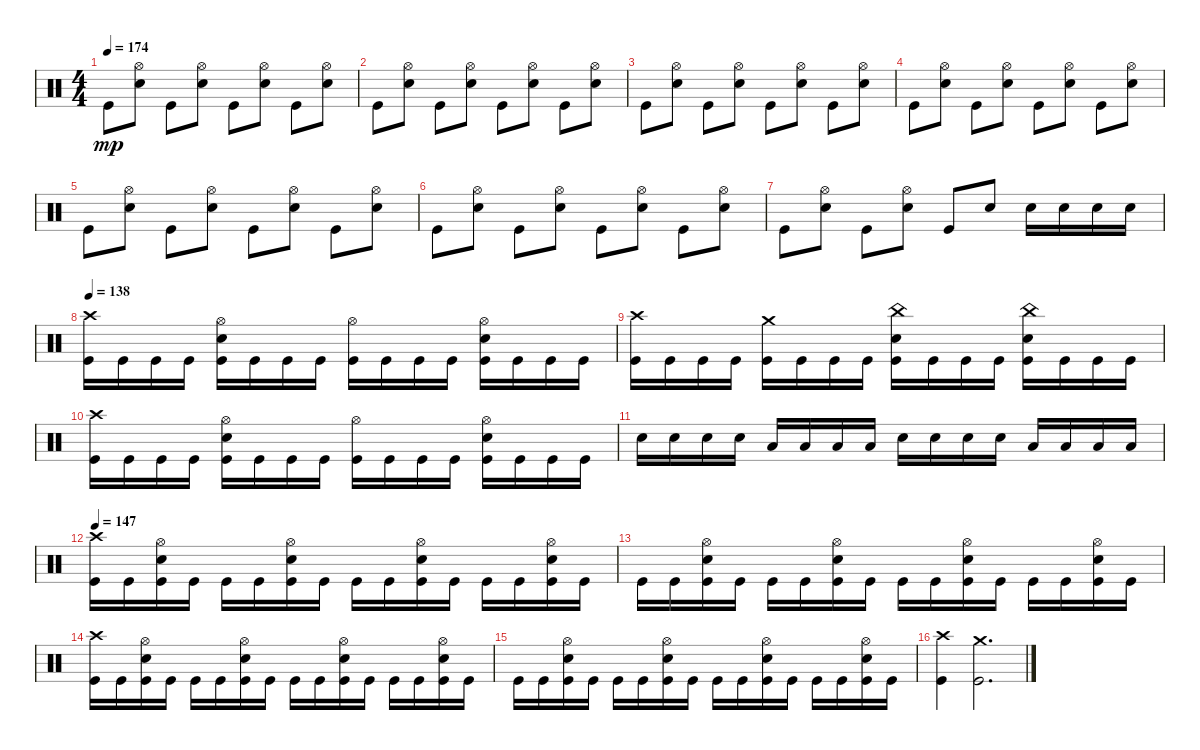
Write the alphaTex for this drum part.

\track "" {instrument percussion}
\staff {score}
\articulation defaults
\ts (4 4)
\tempo 174
\clef neutral
\ks c "Kick (hit)".8{dy mp}
("Snare (hit) 2" "Hi-Hat (open)").8 "Kick (hit)".8 ("Snare (hit) 2" "Hi-Hat (open)").8 "Kick (hit)".8 ("Snare (hit) 2" "Hi-Hat (open)").8 "Kick (hit)".8 ("Snare (hit) 2" "Hi-Hat (open)").8 |
"Kick (hit)".8 ("Snare (hit) 2" "Hi-Hat (open)").8 "Kick (hit)".8 ("Snare (hit) 2" "Hi-Hat (open)").8 "Kick (hit)".8 ("Snare (hit) 2" "Hi-Hat (open)").8 "Kick (hit)".8 ("Snare (hit) 2" "Hi-Hat (open)").8 |
"Kick (hit)".8 ("Snare (hit) 2" "Hi-Hat (open)").8 "Kick (hit)".8 ("Snare (hit) 2" "Hi-Hat (open)").8 "Kick (hit)".8 ("Snare (hit) 2" "Hi-Hat (open)").8 "Kick (hit)".8 ("Snare (hit) 2" "Hi-Hat (open)").8 |
"Kick (hit)".8 ("Snare (hit) 2" "Hi-Hat (open)").8 "Kick (hit)".8 ("Snare (hit) 2" "Hi-Hat (open)").8 "Kick (hit)".8 ("Snare (hit) 2" "Hi-Hat (open)").8 "Kick (hit)".8 ("Snare (hit) 2" "Hi-Hat (open)").8 |
"Kick (hit)".8 ("Snare (hit) 2" "Hi-Hat (open)").8 "Kick (hit)".8 ("Snare (hit) 2" "Hi-Hat (open)").8 "Kick (hit)".8 ("Snare (hit) 2" "Hi-Hat (open)").8 "Kick (hit)".8 ("Snare (hit) 2" "Hi-Hat (open)").8 |
"Kick (hit)".8 ("Snare (hit) 2" "Hi-Hat (open)").8 "Kick (hit)".8 ("Snare (hit) 2" "Hi-Hat (open)").8 "Kick (hit)".8 ("Snare (hit) 2" "Hi-Hat (open)").8 "Kick (hit)".8 ("Snare (hit) 2" "Hi-Hat (open)").8 |
"Kick (hit)".8 ("Snare (hit) 2" "Hi-Hat (open)").8 "Kick (hit)".8 ("Snare (hit) 2" "Hi-Hat (open)").8 "Kick (hit)".8 "Snare (hit) 2".8 "Snare (hit) 2".16 "Snare (hit) 2".16 "Snare (hit) 2".16 "Snare (hit) 2".16 |
\tempo 138
("Kick (hit)" "Crash high (hit)").16 "Kick (hit)".16 "Kick (hit)".16 "Kick (hit)".16 ("Kick (hit)" "Hi-Hat (open)" "Snare (hit) 2").16 "Kick (hit)".16 "Kick (hit)".16 "Kick (hit)".16 ("Kick (hit)" "Hi-Hat (open)").16 "Kick (hit)".16 "Kick (hit)".16 "Kick (hit)".16 ("Kick (hit)" "Snare (hit) 2" "Hi-Hat (open)").16 "Kick (hit)".16 "Kick (hit)".16 "Kick (hit)".16 |
("Kick (hit)" "Crash high (hit)").16 "Kick (hit)".16 "Kick (hit)".16 "Kick (hit)".16 ("Kick (hit)" "Crash medium (hit)").16 "Kick (hit)".16 "Kick (hit)".16 "Kick (hit)".16 ("Kick (hit)" "Snare (hit) 2" "China (hit)").16 "Kick (hit)".16 "Kick (hit)".16 "Kick (hit)".16 ("Kick (hit)" "Snare (hit) 2" "China (hit)").16 "Kick (hit)".16 "Kick (hit)".16 "Kick (hit)".16 |
("Crash high (hit)" "Kick (hit)").16 "Kick (hit)".16 "Kick (hit)".16 "Kick (hit)".16 ("Kick (hit)" "Hi-Hat (open)" "Snare (hit) 2").16 "Kick (hit)".16 "Kick (hit)".16 "Kick (hit)".16 ("Kick (hit)" "Hi-Hat (open)").16 "Kick (hit)".16 "Kick (hit)".16 "Kick (hit)".16 ("Kick (hit)" "Snare (hit) 2" "Hi-Hat (open)").16 "Kick (hit)".16 "Kick (hit)".16 "Kick (hit)".16 |
"Snare (hit) 2".16 "Snare (hit) 2".16 "Snare (hit) 2".16 "Snare (hit) 2".16 "Low Tom (hit)".16 "Low Tom (hit)".16 "Low Tom (hit)".16 "Low Tom (hit)".16 "Snare (hit) 2".16 "Snare (hit) 2".16 "Snare (hit) 2".16 "Snare (hit) 2".16 "Low Tom (hit)".16 "Low Tom (hit)".16 "Low Tom (hit)".16 "Low Tom (hit)".16 |
\tempo 147
("Kick (hit)" "Crash high (hit)").16 "Kick (hit)".16 ("Kick (hit)" "Snare (hit) 2" "Hi-Hat (open)").16 "Kick (hit)".16 "Kick (hit)".16 "Kick (hit)".16 ("Kick (hit)" "Snare (hit) 2" "Hi-Hat (open)").16 "Kick (hit)".16 "Kick (hit)".16 "Kick (hit)".16 ("Kick (hit)" "Snare (hit) 2" "Hi-Hat (open)").16 "Kick (hit)".16 "Kick (hit)".16 "Kick (hit)".16 ("Kick (hit)" "Snare (hit) 2" "Hi-Hat (open)").16 "Kick (hit)".16 |
"Kick (hit)".16 "Kick (hit)".16 ("Kick (hit)" "Snare (hit) 2" "Hi-Hat (open)").16 "Kick (hit)".16 "Kick (hit)".16 "Kick (hit)".16 ("Kick (hit)" "Snare (hit) 2" "Hi-Hat (open)").16 "Kick (hit)".16 "Kick (hit)".16 "Kick (hit)".16 ("Kick (hit)" "Snare (hit) 2" "Hi-Hat (open)").16 "Kick (hit)".16 "Kick (hit)".16 "Kick (hit)".16 ("Kick (hit)" "Snare (hit) 2" "Hi-Hat (open)").16 "Kick (hit)".16 |
("Kick (hit)" "Crash high (hit)").16 "Kick (hit)".16 ("Kick (hit)" "Snare (hit) 2" "Hi-Hat (open)").16 "Kick (hit)".16 "Kick (hit)".16 "Kick (hit)".16 ("Kick (hit)" "Snare (hit) 2" "Hi-Hat (open)").16 "Kick (hit)".16 "Kick (hit)".16 "Kick (hit)".16 ("Kick (hit)" "Snare (hit) 2" "Hi-Hat (open)").16 "Kick (hit)".16 "Kick (hit)".16 "Kick (hit)".16 ("Kick (hit)" "Snare (hit) 2" "Hi-Hat (open)").16 "Kick (hit)".16 |
"Kick (hit)".16 "Kick (hit)".16 ("Kick (hit)" "Snare (hit) 2" "Hi-Hat (open)").16 "Kick (hit)".16 "Kick (hit)".16 "Kick (hit)".16 ("Kick (hit)" "Snare (hit) 2" "Hi-Hat (open)").16 "Kick (hit)".16 "Kick (hit)".16 "Kick (hit)".16 ("Kick (hit)" "Snare (hit) 2" "Hi-Hat (open)").16 "Kick (hit)".16 "Kick (hit)".16 "Kick (hit)".16 ("Kick (hit)" "Snare (hit) 2" "Hi-Hat (open)").16 "Kick (hit)".16 |
("Crash high (hit)" "Kick (hit)").4 ("Crash medium (hit)" "Kick (hit)").2{d}
